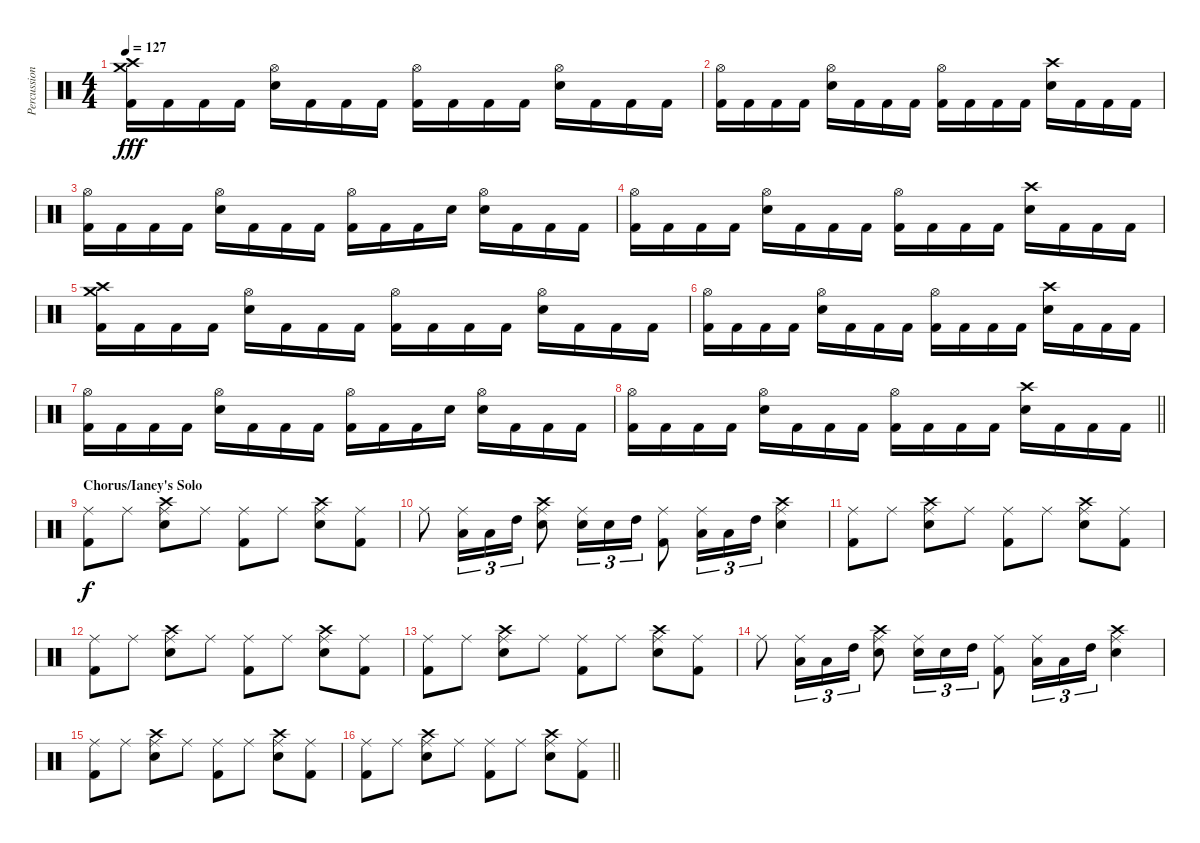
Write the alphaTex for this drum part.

\track ("Percussion" "Percussion") {instrument percussion}
\staff {score}
\articulation defaults
\ts (4 4)
\tempo 127
\clef neutral
\ks c
("Crash high (hit)" "Crash medium (hit)" "Kick (hit) 2").16{dy fff} "Kick (hit) 2".16 "Kick (hit) 2".16 "Kick (hit) 2".16 ("Hi-Hat (open)" "Snare (hit) 2").16 "Kick (hit) 2".16 "Kick (hit) 2".16 "Kick (hit) 2".16 ("Hi-Hat (open)" "Kick (hit) 2").16 "Kick (hit) 2".16 "Kick (hit) 2".16 "Kick (hit) 2".16 ("Hi-Hat (open)" "Snare (hit) 2").16 "Kick (hit) 2".16 "Kick (hit) 2".16 "Kick (hit) 2".16 |
("Hi-Hat (open)" "Kick (hit) 2").16 "Kick (hit) 2".16 "Kick (hit) 2".16 "Kick (hit) 2".16 ("Hi-Hat (open)" "Snare (hit) 2").16 "Kick (hit) 2".16 "Kick (hit) 2".16 "Kick (hit) 2".16 ("Hi-Hat (open)" "Kick (hit) 2").16 "Kick (hit) 2".16 "Kick (hit) 2".16 "Kick (hit) 2".16 ("Crash high (hit)" "Snare (hit) 2").16 "Kick (hit) 2".16 "Kick (hit) 2".16 "Kick (hit) 2".16 |
("Hi-Hat (open)" "Kick (hit) 2").16 "Kick (hit) 2".16 "Kick (hit) 2".16 "Kick (hit) 2".16 ("Hi-Hat (open)" "Snare (hit) 2").16 "Kick (hit) 2".16 "Kick (hit) 2".16 "Kick (hit) 2".16 ("Hi-Hat (open)" "Kick (hit) 2").16 "Kick (hit) 2".16 "Kick (hit) 2".16 "Snare (hit) 2".16 ("Hi-Hat (open)" "Snare (hit) 2").16 "Kick (hit) 2".16 "Kick (hit) 2".16 "Kick (hit) 2".16 |
("Hi-Hat (open)" "Kick (hit) 2").16 "Kick (hit) 2".16 "Kick (hit) 2".16 "Kick (hit) 2".16 ("Hi-Hat (open)" "Snare (hit) 2").16 "Kick (hit) 2".16 "Kick (hit) 2".16 "Kick (hit) 2".16 ("Hi-Hat (open)" "Kick (hit) 2").16 "Kick (hit) 2".16 "Kick (hit) 2".16 "Kick (hit) 2".16 ("Crash high (hit)" "Snare (hit) 2").16 "Kick (hit) 2".16 "Kick (hit) 2".16 "Kick (hit) 2".16 |
("Crash high (hit)" "Crash medium (hit)" "Kick (hit) 2").16 "Kick (hit) 2".16 "Kick (hit) 2".16 "Kick (hit) 2".16 ("Hi-Hat (open)" "Snare (hit) 2").16 "Kick (hit) 2".16 "Kick (hit) 2".16 "Kick (hit) 2".16 ("Hi-Hat (open)" "Kick (hit) 2").16 "Kick (hit) 2".16 "Kick (hit) 2".16 "Kick (hit) 2".16 ("Hi-Hat (open)" "Snare (hit) 2").16 "Kick (hit) 2".16 "Kick (hit) 2".16 "Kick (hit) 2".16 |
("Hi-Hat (open)" "Kick (hit) 2").16 "Kick (hit) 2".16 "Kick (hit) 2".16 "Kick (hit) 2".16 ("Hi-Hat (open)" "Snare (hit) 2").16 "Kick (hit) 2".16 "Kick (hit) 2".16 "Kick (hit) 2".16 ("Hi-Hat (open)" "Kick (hit) 2").16 "Kick (hit) 2".16 "Kick (hit) 2".16 "Kick (hit) 2".16 ("Crash high (hit)" "Snare (hit) 2").16 "Kick (hit) 2".16 "Kick (hit) 2".16 "Kick (hit) 2".16 |
("Hi-Hat (open)" "Kick (hit) 2").16 "Kick (hit) 2".16 "Kick (hit) 2".16 "Kick (hit) 2".16 ("Hi-Hat (open)" "Snare (hit) 2").16 "Kick (hit) 2".16 "Kick (hit) 2".16 "Kick (hit) 2".16 ("Hi-Hat (open)" "Kick (hit) 2").16 "Kick (hit) 2".16 "Kick (hit) 2".16 "Snare (hit) 2".16 ("Hi-Hat (open)" "Snare (hit) 2").16 "Kick (hit) 2".16 "Kick (hit) 2".16 "Kick (hit) 2".16 |
\barLineRight lightlight
("Hi-Hat (open)" "Kick (hit) 2").16 "Kick (hit) 2".16 "Kick (hit) 2".16 "Kick (hit) 2".16 ("Hi-Hat (open)" "Snare (hit) 2").16 "Kick (hit) 2".16 "Kick (hit) 2".16 "Kick (hit) 2".16 ("Hi-Hat (open)" "Kick (hit) 2").16 "Kick (hit) 2".16 "Kick (hit) 2".16 "Kick (hit) 2".16 ("Crash high (hit)" "Snare (hit) 2").16 "Kick (hit) 2".16 "Kick (hit) 2".16 "Kick (hit) 2".16 |
\section ("" "Chorus/Ianey's Solo")
("Ride (middle)" "Kick (hit) 2").8{dy f} "Ride (middle)".8 ("Crash high (hit)" "Ride (middle)" "Snare (hit) 2").8 "Ride (middle)".8 ("Ride (middle)" "Kick (hit) 2").8 "Ride (middle)".8 ("Crash high (hit)" "Ride (middle)" "Snare (hit) 2").8 ("Ride (middle)" "Kick (hit) 2").8 |
"Ride (middle)".8 ("Ride (middle)" "Low Tom (hit)").16{tu (3 2)} "Low Tom (hit)".16{tu (3 2)} "High Tom (hit)".16{tu (3 2)} ("Crash high (hit)" "Ride (middle)" "Snare (hit) 2").8 ("Ride (middle)" "Snare (hit) 2").16{tu (3 2)} "Snare (hit) 2".16{tu (3 2)} "High Tom (hit)".16{tu (3 2)} ("Ride (middle)" "Kick (hit) 2").8 ("Ride (middle)" "Low Tom (hit)").16{tu (3 2)} "Low Tom (hit)".16{tu (3 2)} "High Tom (hit)".16{tu (3 2)} ("Crash high (hit)" "Ride (middle)" "Snare (hit) 2").4 |
("Ride (middle)" "Kick (hit) 2").8 "Ride (middle)".8 ("Crash high (hit)" "Ride (middle)" "Snare (hit) 2").8 "Ride (middle)".8 ("Ride (middle)" "Kick (hit) 2").8 "Ride (middle)".8 ("Crash high (hit)" "Ride (middle)" "Snare (hit) 2").8 ("Ride (middle)" "Kick (hit) 2").8 |
("Ride (middle)" "Kick (hit) 2").8 "Ride (middle)".8 ("Crash high (hit)" "Ride (middle)" "Snare (hit) 2").8 "Ride (middle)".8 ("Ride (middle)" "Kick (hit) 2").8 "Ride (middle)".8 ("Crash high (hit)" "Ride (middle)" "Snare (hit) 2").8 ("Ride (middle)" "Kick (hit) 2").8 |
("Ride (middle)" "Kick (hit) 2").8 "Ride (middle)".8 ("Crash high (hit)" "Ride (middle)" "Snare (hit) 2").8 "Ride (middle)".8 ("Ride (middle)" "Kick (hit) 2").8 "Ride (middle)".8 ("Crash high (hit)" "Ride (middle)" "Snare (hit) 2").8 ("Ride (middle)" "Kick (hit) 2").8 |
"Ride (middle)".8 ("Ride (middle)" "Low Tom (hit)").16{tu (3 2)} "Low Tom (hit)".16{tu (3 2)} "High Tom (hit)".16{tu (3 2)} ("Crash high (hit)" "Ride (middle)" "Snare (hit) 2").8 ("Ride (middle)" "Snare (hit) 2").16{tu (3 2)} "Snare (hit) 2".16{tu (3 2)} "High Tom (hit)".16{tu (3 2)} ("Ride (middle)" "Kick (hit) 2").8 ("Ride (middle)" "Low Tom (hit)").16{tu (3 2)} "Low Tom (hit)".16{tu (3 2)} "High Tom (hit)".16{tu (3 2)} ("Crash high (hit)" "Ride (middle)" "Snare (hit) 2").4 |
("Ride (middle)" "Kick (hit) 2").8 "Ride (middle)".8 ("Crash high (hit)" "Ride (middle)" "Snare (hit) 2").8 "Ride (middle)".8 ("Ride (middle)" "Kick (hit) 2").8 "Ride (middle)".8 ("Crash high (hit)" "Ride (middle)" "Snare (hit) 2").8 ("Ride (middle)" "Kick (hit) 2").8 |
\barLineRight lightlight
("Ride (middle)" "Kick (hit) 2").8 "Ride (middle)".8 ("Crash high (hit)" "Ride (middle)" "Snare (hit) 2").8 "Ride (middle)".8 ("Ride (middle)" "Kick (hit) 2").8 "Ride (middle)".8 ("Crash high (hit)" "Ride (middle)" "Snare (hit) 2").8 ("Ride (middle)" "Kick (hit) 2").8
